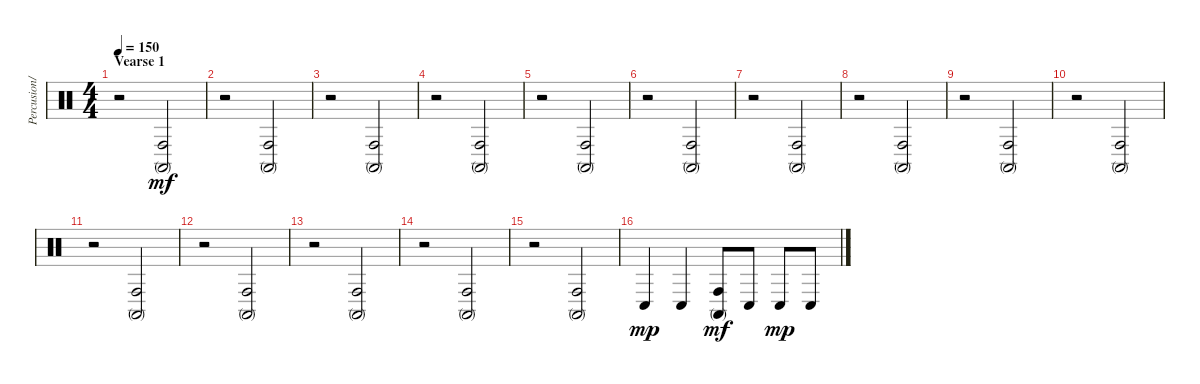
\track ("Percusion/Drum" "Percusion/") {instrument percussion}
\staff {score}
\articulation defaults
\ts (4 4)
\section ("" "Vearse 1")
\tempo 150
\clef neutral
\ks c
r.2{dy p} ("Conga high (mute)" "Conga high (hit)").2{dy mf} |
r.2 ("Conga high (mute)" "Conga high (hit)").2 |
r.2 ("Conga high (mute)" "Conga high (hit)").2 |
r.2 ("Conga high (mute)" "Conga high (hit)").2 |
r.2 ("Conga high (mute)" "Conga high (hit)").2 |
r.2 ("Conga high (mute)" "Conga high (hit)").2 |
r.2 ("Conga high (mute)" "Conga high (hit)").2 |
r.2 ("Conga high (mute)" "Conga high (hit)").2 |
r.2 ("Conga high (mute)" "Conga high (hit)").2 |
r.2 ("Conga high (mute)" "Conga high (hit)").2 |
r.2 ("Conga high (mute)" "Conga high (hit)").2 |
r.2 ("Conga high (mute)" "Conga high (hit)").2 |
r.2 ("Conga high (mute)" "Conga high (hit)").2 |
r.2 ("Conga high (mute)" "Conga high (hit)").2 |
r.2 ("Conga high (mute)" "Conga high (hit)").2 |
"Conga low (hit)".4{dy mp} "Conga low (hit)".4 ("Conga high (mute)" "Conga high (hit)").8{dy mf} "Conga low (hit)".8 "Conga low (hit)".8{dy mp} "Conga low (hit)".8
